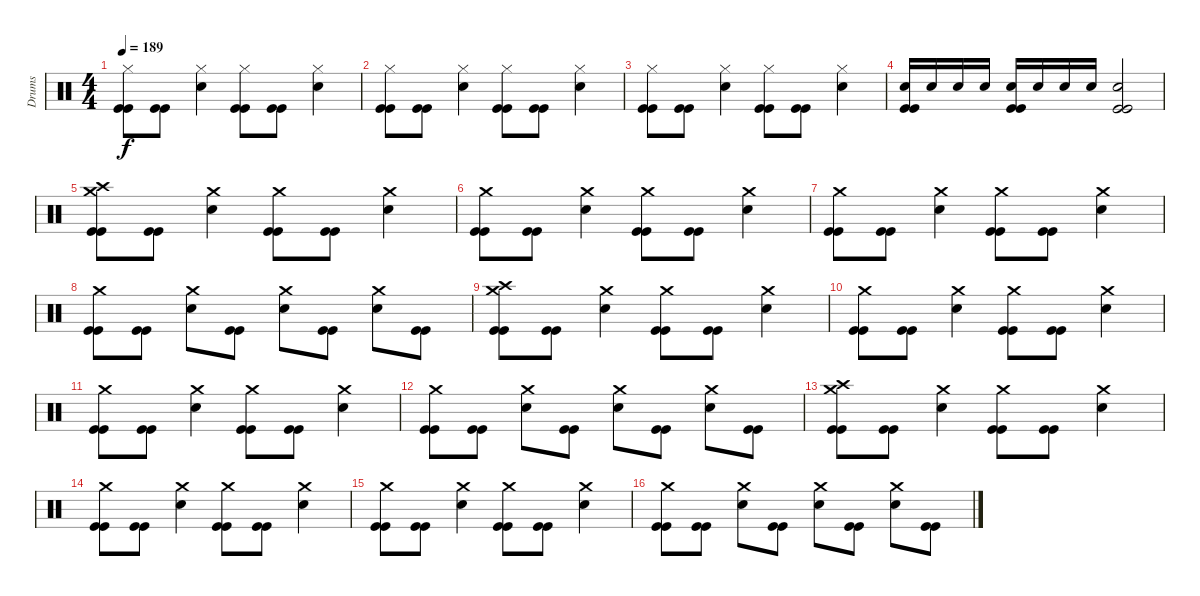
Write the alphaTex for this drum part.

\track ("Drums" "Drums") {instrument percussion}
\staff {score}
\articulation defaults
\ts (4 4)
\tempo 189
\clef neutral
\ks c
("Hi-Hat (closed)" "Kick (hit)" "Kick (hit)").8{dy f} ("Kick (hit)" "Kick (hit)").8 ("Hi-Hat (closed)" "Electric Snare (hit)").4 ("Hi-Hat (closed)" "Kick (hit)" "Kick (hit)").8 ("Kick (hit)" "Kick (hit)").8 ("Hi-Hat (closed)" "Electric Snare (hit)").4 |
("Hi-Hat (closed)" "Kick (hit)" "Kick (hit)").8 ("Kick (hit)" "Kick (hit)").8 ("Hi-Hat (closed)" "Electric Snare (hit)").4 ("Hi-Hat (closed)" "Kick (hit)" "Kick (hit)").8 ("Kick (hit)" "Kick (hit)").8 ("Hi-Hat (closed)" "Electric Snare (hit)").4 |
("Hi-Hat (closed)" "Kick (hit)" "Kick (hit)").8 ("Kick (hit)" "Kick (hit)").8 ("Hi-Hat (closed)" "Electric Snare (hit)").4 ("Hi-Hat (closed)" "Kick (hit)" "Kick (hit)").8 ("Kick (hit)" "Kick (hit)").8 ("Hi-Hat (closed)" "Electric Snare (hit)").4 |
("Electric Snare (hit)" "Kick (hit)" "Kick (hit)").16 "Electric Snare (hit)".16 "Electric Snare (hit)".16 "Electric Snare (hit)".16 ("Electric Snare (hit)" "Kick (hit)" "Kick (hit)").16 "Electric Snare (hit)".16 "Electric Snare (hit)".16 "Electric Snare (hit)".16 ("Electric Snare (hit)" "Kick (hit)" "Kick (hit)").2 |
("Crash high (hit)" "Crash medium (hit)" "Kick (hit)" "Kick (hit)").8 ("Kick (hit)" "Kick (hit)").8 ("Crash medium (hit)" "Electric Snare (hit)").4 ("Crash medium (hit)" "Kick (hit)" "Kick (hit)").8 ("Kick (hit)" "Kick (hit)").8 ("Crash medium (hit)" "Electric Snare (hit)").4 |
("Crash medium (hit)" "Kick (hit)" "Kick (hit)").8 ("Kick (hit)" "Kick (hit)").8 ("Crash medium (hit)" "Electric Snare (hit)").4 ("Crash medium (hit)" "Kick (hit)" "Kick (hit)").8 ("Kick (hit)" "Kick (hit)").8 ("Crash medium (hit)" "Electric Snare (hit)").4 |
("Crash medium (hit)" "Kick (hit)" "Kick (hit)").8 ("Kick (hit)" "Kick (hit)").8 ("Crash medium (hit)" "Electric Snare (hit)").4 ("Crash medium (hit)" "Kick (hit)" "Kick (hit)").8 ("Kick (hit)" "Kick (hit)").8 ("Crash medium (hit)" "Electric Snare (hit)").4 |
("Crash medium (hit)" "Kick (hit)" "Kick (hit)").8 ("Kick (hit)" "Kick (hit)").8 ("Crash medium (hit)" "Electric Snare (hit)").8 ("Kick (hit)" "Kick (hit)").8 ("Crash medium (hit)" "Electric Snare (hit)").8 ("Kick (hit)" "Kick (hit)").8 ("Crash medium (hit)" "Electric Snare (hit)").8 ("Kick (hit)" "Kick (hit)").8 |
("Crash high (hit)" "Crash medium (hit)" "Kick (hit)" "Kick (hit)").8 ("Kick (hit)" "Kick (hit)").8 ("Crash medium (hit)" "Electric Snare (hit)").4 ("Crash medium (hit)" "Kick (hit)" "Kick (hit)").8 ("Kick (hit)" "Kick (hit)").8 ("Crash medium (hit)" "Electric Snare (hit)").4 |
("Crash medium (hit)" "Kick (hit)" "Kick (hit)").8 ("Kick (hit)" "Kick (hit)").8 ("Crash medium (hit)" "Electric Snare (hit)").4 ("Crash medium (hit)" "Kick (hit)" "Kick (hit)").8 ("Kick (hit)" "Kick (hit)").8 ("Crash medium (hit)" "Electric Snare (hit)").4 |
("Crash medium (hit)" "Kick (hit)" "Kick (hit)").8 ("Kick (hit)" "Kick (hit)").8 ("Crash medium (hit)" "Electric Snare (hit)").4 ("Crash medium (hit)" "Kick (hit)" "Kick (hit)").8 ("Kick (hit)" "Kick (hit)").8 ("Crash medium (hit)" "Electric Snare (hit)").4 |
("Crash medium (hit)" "Kick (hit)" "Kick (hit)").8 ("Kick (hit)" "Kick (hit)").8 ("Crash medium (hit)" "Electric Snare (hit)").8 ("Kick (hit)" "Kick (hit)").8 ("Crash medium (hit)" "Electric Snare (hit)").8 ("Kick (hit)" "Kick (hit)").8 ("Crash medium (hit)" "Electric Snare (hit)").8 ("Kick (hit)" "Kick (hit)").8 |
("Crash high (hit)" "Crash medium (hit)" "Kick (hit)" "Kick (hit)").8 ("Kick (hit)" "Kick (hit)").8 ("Crash medium (hit)" "Electric Snare (hit)").4 ("Crash medium (hit)" "Kick (hit)" "Kick (hit)").8 ("Kick (hit)" "Kick (hit)").8 ("Crash medium (hit)" "Electric Snare (hit)").4 |
("Crash medium (hit)" "Kick (hit)" "Kick (hit)").8 ("Kick (hit)" "Kick (hit)").8 ("Crash medium (hit)" "Electric Snare (hit)").4 ("Crash medium (hit)" "Kick (hit)" "Kick (hit)").8 ("Kick (hit)" "Kick (hit)").8 ("Crash medium (hit)" "Electric Snare (hit)").4 |
("Crash medium (hit)" "Kick (hit)" "Kick (hit)").8 ("Kick (hit)" "Kick (hit)").8 ("Crash medium (hit)" "Electric Snare (hit)").4 ("Crash medium (hit)" "Kick (hit)" "Kick (hit)").8 ("Kick (hit)" "Kick (hit)").8 ("Crash medium (hit)" "Electric Snare (hit)").4 |
("Crash medium (hit)" "Kick (hit)" "Kick (hit)").8 ("Kick (hit)" "Kick (hit)").8 ("Crash medium (hit)" "Electric Snare (hit)").8 ("Kick (hit)" "Kick (hit)").8 ("Crash medium (hit)" "Electric Snare (hit)").8 ("Kick (hit)" "Kick (hit)").8 ("Crash medium (hit)" "Electric Snare (hit)").8 ("Kick (hit)" "Kick (hit)").8
